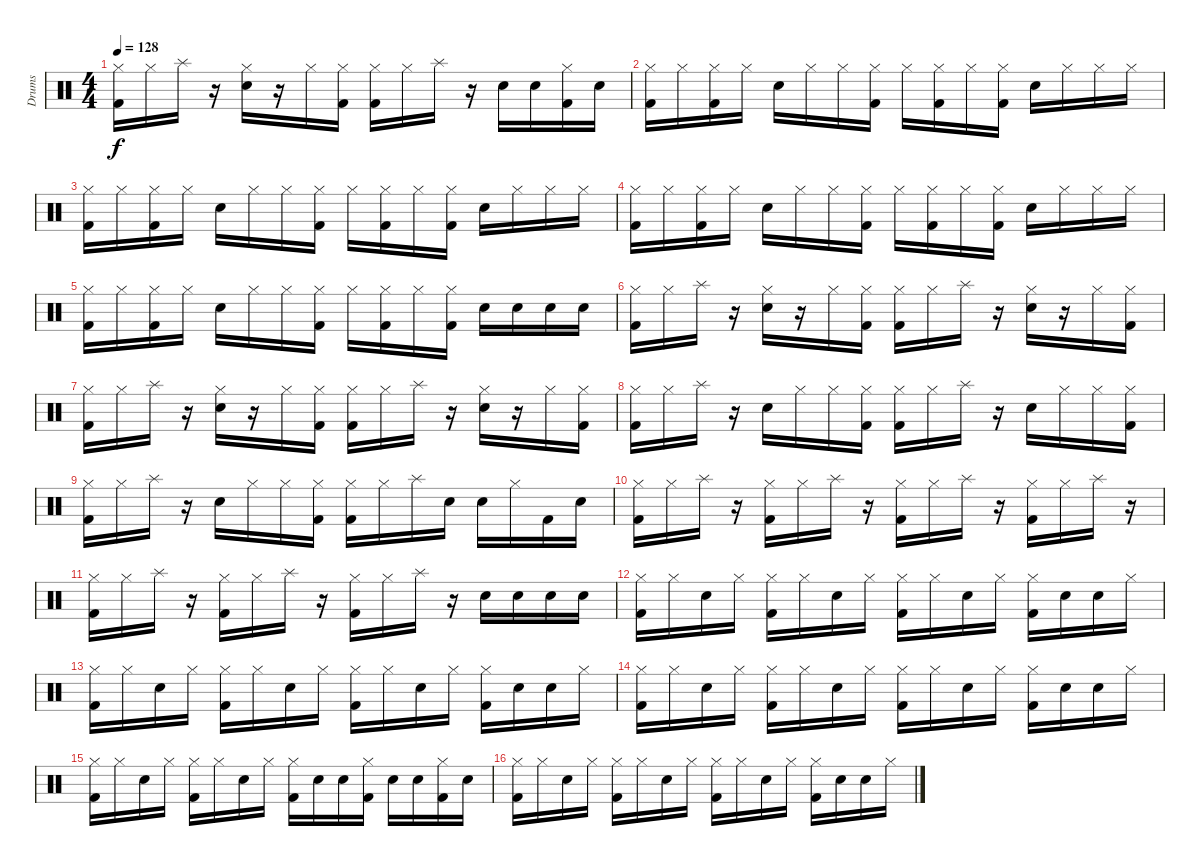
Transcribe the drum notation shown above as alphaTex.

\track ("Drums" "Drums") {instrument percussion}
\staff {score}
\articulation defaults
\ts (4 4)
\tempo 128
\clef neutral
\ks c
("Hi-Hat (closed)" "Kick (hit) 2").16{dy f} "Hi-Hat (closed)".16 "Splash (hit)".16 r.16 ("Hi-Hat (closed)" "Snare (hit) 2").16 r.16 "Hi-Hat (closed)".16 ("Hi-Hat (closed)" "Kick (hit) 2").16 ("Hi-Hat (closed)" "Kick (hit) 2").16 "Hi-Hat (closed)".16 "Splash (hit)".16 r.16 "Snare (hit) 2".16 "Snare (hit) 2".16 ("Hi-Hat (closed)" "Kick (hit) 2").16 "Snare (hit) 2".16 |
("Hi-Hat (closed)" "Kick (hit) 2").16 "Hi-Hat (closed)".16 ("Hi-Hat (closed)" "Kick (hit) 2").16 "Hi-Hat (closed)".16 "Snare (hit) 2".16 "Hi-Hat (closed)".16 "Hi-Hat (closed)".16 ("Hi-Hat (closed)" "Kick (hit) 2").16 "Hi-Hat (closed)".16 ("Hi-Hat (closed)" "Kick (hit) 2").16 "Hi-Hat (closed)".16 ("Hi-Hat (closed)" "Kick (hit) 2").16 "Snare (hit) 2".16 "Hi-Hat (closed)".16 "Hi-Hat (closed)".16 "Hi-Hat (closed)".16 |
("Hi-Hat (closed)" "Kick (hit) 2").16 "Hi-Hat (closed)".16 ("Hi-Hat (closed)" "Kick (hit) 2").16 "Hi-Hat (closed)".16 "Snare (hit) 2".16 "Hi-Hat (closed)".16 "Hi-Hat (closed)".16 ("Hi-Hat (closed)" "Kick (hit) 2").16 "Hi-Hat (closed)".16 ("Hi-Hat (closed)" "Kick (hit) 2").16 "Hi-Hat (closed)".16 ("Hi-Hat (closed)" "Kick (hit) 2").16 "Snare (hit) 2".16 "Hi-Hat (closed)".16 "Hi-Hat (closed)".16 "Hi-Hat (closed)".16 |
("Hi-Hat (closed)" "Kick (hit) 2").16 "Hi-Hat (closed)".16 ("Hi-Hat (closed)" "Kick (hit) 2").16 "Hi-Hat (closed)".16 "Snare (hit) 2".16 "Hi-Hat (closed)".16 "Hi-Hat (closed)".16 ("Hi-Hat (closed)" "Kick (hit) 2").16 "Hi-Hat (closed)".16 ("Hi-Hat (closed)" "Kick (hit) 2").16 "Hi-Hat (closed)".16 ("Hi-Hat (closed)" "Kick (hit) 2").16 "Snare (hit) 2".16 "Hi-Hat (closed)".16 "Hi-Hat (closed)".16 "Hi-Hat (closed)".16 |
("Hi-Hat (closed)" "Kick (hit) 2").16 "Hi-Hat (closed)".16 ("Hi-Hat (closed)" "Kick (hit) 2").16 "Hi-Hat (closed)".16 "Snare (hit) 2".16 "Hi-Hat (closed)".16 "Hi-Hat (closed)".16 ("Hi-Hat (closed)" "Kick (hit) 2").16 "Hi-Hat (closed)".16 ("Hi-Hat (closed)" "Kick (hit) 2").16 "Hi-Hat (closed)".16 ("Hi-Hat (closed)" "Kick (hit) 2").16 "Snare (hit) 2".16 "Snare (hit) 2".16 "Snare (hit) 2".16 "Snare (hit) 2".16 |
("Hi-Hat (closed)" "Kick (hit) 2").16 "Hi-Hat (closed)".16 "Splash (hit)".16 r.16 ("Hi-Hat (closed)" "Snare (hit) 2").16 r.16 "Hi-Hat (closed)".16 ("Hi-Hat (closed)" "Kick (hit) 2").16 ("Hi-Hat (closed)" "Kick (hit) 2").16 "Hi-Hat (closed)".16 "Splash (hit)".16 r.16 ("Hi-Hat (closed)" "Snare (hit) 2").16 r.16 "Hi-Hat (closed)".16 ("Hi-Hat (closed)" "Kick (hit) 2").16 |
("Hi-Hat (closed)" "Kick (hit) 2").16 "Hi-Hat (closed)".16 "Splash (hit)".16 r.16 ("Hi-Hat (closed)" "Snare (hit) 2").16 r.16 "Hi-Hat (closed)".16 ("Hi-Hat (closed)" "Kick (hit) 2").16 ("Hi-Hat (closed)" "Kick (hit) 2").16 "Hi-Hat (closed)".16 "Splash (hit)".16 r.16 ("Hi-Hat (closed)" "Snare (hit) 2").16 r.16 "Hi-Hat (closed)".16 ("Hi-Hat (closed)" "Kick (hit) 2").16 |
("Hi-Hat (closed)" "Kick (hit) 2").16 "Hi-Hat (closed)".16 "Splash (hit)".16 r.16 "Snare (hit) 2".16 "Hi-Hat (closed)".16 "Hi-Hat (closed)".16 ("Hi-Hat (closed)" "Kick (hit) 2").16 ("Hi-Hat (closed)" "Kick (hit) 2").16 "Hi-Hat (closed)".16 "Splash (hit)".16 r.16 "Snare (hit) 2".16 "Hi-Hat (closed)".16 "Hi-Hat (closed)".16 ("Hi-Hat (closed)" "Kick (hit) 2").16 |
("Hi-Hat (closed)" "Kick (hit) 2").16 "Hi-Hat (closed)".16 "Splash (hit)".16 r.16 "Snare (hit) 2".16 "Hi-Hat (closed)".16 "Hi-Hat (closed)".16 ("Hi-Hat (closed)" "Kick (hit) 2").16 ("Hi-Hat (closed)" "Kick (hit) 2").16 "Hi-Hat (closed)".16 "Splash (hit)".16 "Snare (hit) 2".16 "Snare (hit) 2".16 "Hi-Hat (closed)".16 "Kick (hit) 2".16 "Snare (hit) 2".16 |
("Hi-Hat (closed)" "Kick (hit) 2").16 "Hi-Hat (closed)".16 "Splash (hit)".16 r.16 ("Hi-Hat (closed)" "Kick (hit) 2").16 "Hi-Hat (closed)".16 "Splash (hit)".16 r.16 ("Hi-Hat (closed)" "Kick (hit) 2").16 "Hi-Hat (closed)".16 "Splash (hit)".16 r.16 ("Hi-Hat (closed)" "Kick (hit) 2").16 "Hi-Hat (closed)".16 "Splash (hit)".16 r.16 |
("Hi-Hat (closed)" "Kick (hit) 2").16 "Hi-Hat (closed)".16 "Splash (hit)".16 r.16 ("Hi-Hat (closed)" "Kick (hit) 2").16 "Hi-Hat (closed)".16 "Splash (hit)".16 r.16 ("Hi-Hat (closed)" "Kick (hit) 2").16 "Hi-Hat (closed)".16 "Splash (hit)".16 r.16 "Snare (hit) 2".16 "Snare (hit) 2".16 "Snare (hit) 2".16 "Snare (hit) 2".16 |
("Hi-Hat (closed)" "Kick (hit) 2").16 "Hi-Hat (closed)".16 "Snare (hit) 2".16 "Hi-Hat (closed)".16 ("Hi-Hat (closed)" "Kick (hit) 2").16 "Hi-Hat (closed)".16 "Snare (hit) 2".16 "Hi-Hat (closed)".16 ("Hi-Hat (closed)" "Kick (hit) 2").16 "Hi-Hat (closed)".16 "Snare (hit) 2".16 "Hi-Hat (closed)".16 ("Hi-Hat (closed)" "Kick (hit) 2").16 "Snare (hit) 2".16 "Snare (hit) 2".16 "Hi-Hat (closed)".16 |
("Hi-Hat (closed)" "Kick (hit) 2").16 "Hi-Hat (closed)".16 "Snare (hit) 2".16 "Hi-Hat (closed)".16 ("Hi-Hat (closed)" "Kick (hit) 2").16 "Hi-Hat (closed)".16 "Snare (hit) 2".16 "Hi-Hat (closed)".16 ("Hi-Hat (closed)" "Kick (hit) 2").16 "Hi-Hat (closed)".16 "Snare (hit) 2".16 "Hi-Hat (closed)".16 ("Hi-Hat (closed)" "Kick (hit) 2").16 "Snare (hit) 2".16 "Snare (hit) 2".16 "Hi-Hat (closed)".16 |
("Hi-Hat (closed)" "Kick (hit) 2").16 "Hi-Hat (closed)".16 "Snare (hit) 2".16 "Hi-Hat (closed)".16 ("Hi-Hat (closed)" "Kick (hit) 2").16 "Hi-Hat (closed)".16 "Snare (hit) 2".16 "Hi-Hat (closed)".16 ("Hi-Hat (closed)" "Kick (hit) 2").16 "Hi-Hat (closed)".16 "Snare (hit) 2".16 "Hi-Hat (closed)".16 ("Hi-Hat (closed)" "Kick (hit) 2").16 "Snare (hit) 2".16 "Snare (hit) 2".16 "Hi-Hat (closed)".16 |
("Hi-Hat (closed)" "Kick (hit) 2").16 "Hi-Hat (closed)".16 "Snare (hit) 2".16 "Hi-Hat (closed)".16 ("Hi-Hat (closed)" "Kick (hit) 2").16 "Hi-Hat (closed)".16 "Snare (hit) 2".16 "Hi-Hat (closed)".16 ("Hi-Hat (closed)" "Kick (hit) 2").16 "Snare (hit) 2".16 "Snare (hit) 2".16 ("Hi-Hat (closed)" "Kick (hit) 2").16 "Snare (hit) 2".16 "Snare (hit) 2".16 ("Hi-Hat (closed)" "Kick (hit) 2").16 "Snare (hit) 2".16 |
("Hi-Hat (closed)" "Kick (hit) 2").16 "Hi-Hat (closed)".16 "Snare (hit) 2".16 "Hi-Hat (closed)".16 ("Hi-Hat (closed)" "Kick (hit) 2").16 "Hi-Hat (closed)".16 "Snare (hit) 2".16 "Hi-Hat (closed)".16 ("Hi-Hat (closed)" "Kick (hit) 2").16 "Hi-Hat (closed)".16 "Snare (hit) 2".16 "Hi-Hat (closed)".16 ("Hi-Hat (closed)" "Kick (hit) 2").16 "Snare (hit) 2".16 "Snare (hit) 2".16 "Hi-Hat (closed)".16
